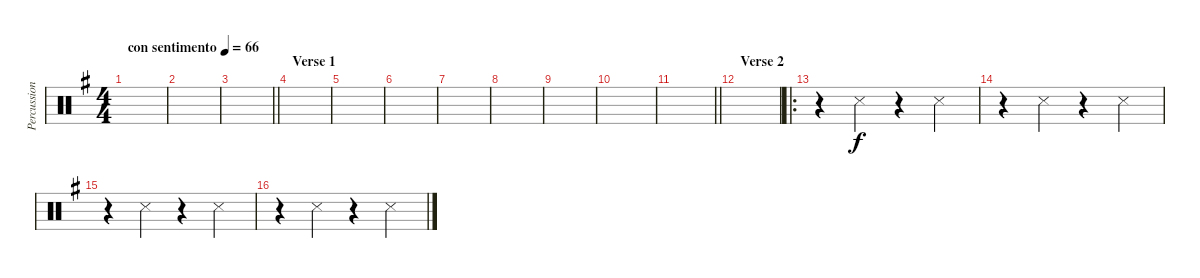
\track ("Percussion" "Percussion") {instrument percussion}
\staff {score}
\articulation defaults
\ts (4 4)
\tempo (66 "con sentimento")
\clef neutral
\ks g
|
|
\barLineRight lightlight
|
\section ("" "Verse 1")
|
|
|
|
|
|
|
\barLineRight lightlight
|
\section ("" "Verse 2")
|
\ro
r.4 "Snare (side stick) 3".4 r.4 "Snare (side stick) 3".4 |
r.4 "Snare (side stick) 3".4 r.4 "Snare (side stick) 3".4 |
r.4 "Snare (side stick) 3".4 r.4 "Snare (side stick) 3".4 |
r.4 "Snare (side stick) 3".4 r.4 "Snare (side stick) 3".4
